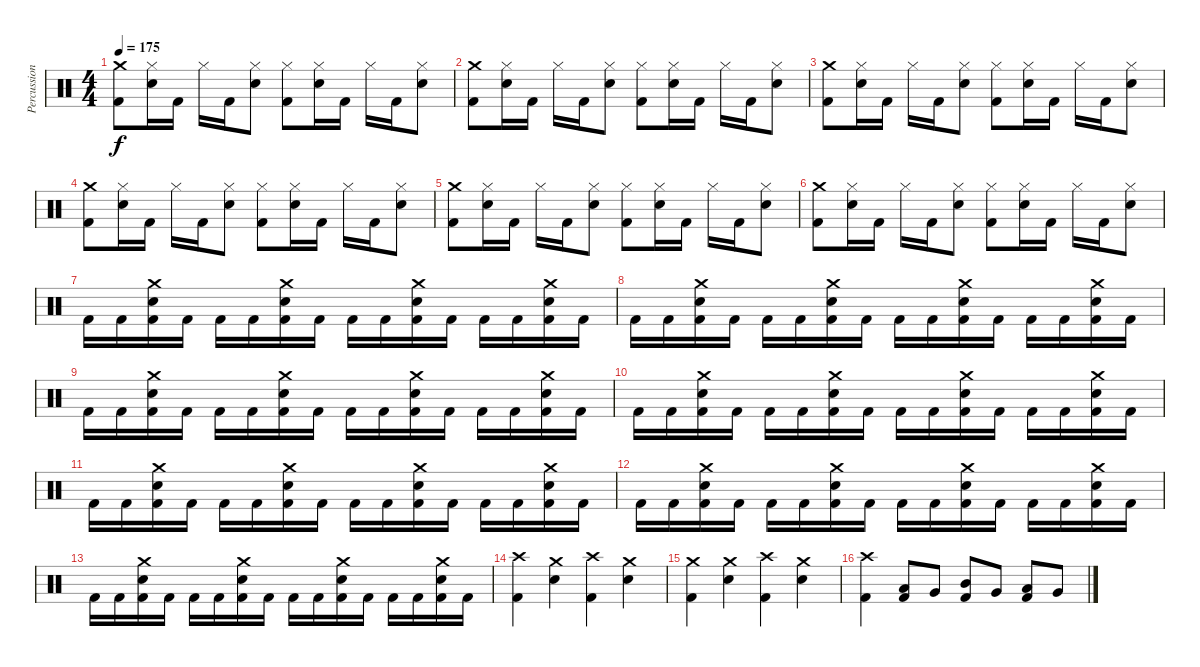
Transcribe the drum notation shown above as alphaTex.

\track ("Percussion" "Percussion") {instrument percussion}
\staff {score}
\articulation defaults
\ts (4 4)
\tempo 175
\clef neutral
\ks c
("Crash medium (hit)" "Kick (hit) 2").8{dy f} ("Hi-Hat (closed)" "Electric Snare (hit)").16 "Kick (hit) 2".16 "Hi-Hat (closed)".16 "Kick (hit) 2".16 ("Hi-Hat (closed)" "Electric Snare (hit)").8 ("Hi-Hat (closed)" "Kick (hit) 2").8 ("Hi-Hat (closed)" "Electric Snare (hit)").16 "Kick (hit) 2".16 "Hi-Hat (closed)".16 "Kick (hit) 2".16 ("Hi-Hat (closed)" "Electric Snare (hit)").8 |
("Crash medium (hit)" "Kick (hit) 2").8 ("Hi-Hat (closed)" "Electric Snare (hit)").16 "Kick (hit) 2".16 "Hi-Hat (closed)".16 "Kick (hit) 2".16 ("Hi-Hat (closed)" "Electric Snare (hit)").8 ("Hi-Hat (closed)" "Kick (hit) 2").8 ("Hi-Hat (closed)" "Electric Snare (hit)").16 "Kick (hit) 2".16 "Hi-Hat (closed)".16 "Kick (hit) 2".16 ("Hi-Hat (closed)" "Electric Snare (hit)").8 |
("Crash medium (hit)" "Kick (hit) 2").8 ("Hi-Hat (closed)" "Electric Snare (hit)").16 "Kick (hit) 2".16 "Hi-Hat (closed)".16 "Kick (hit) 2".16 ("Hi-Hat (closed)" "Electric Snare (hit)").8 ("Hi-Hat (closed)" "Kick (hit) 2").8 ("Hi-Hat (closed)" "Electric Snare (hit)").16 "Kick (hit) 2".16 "Hi-Hat (closed)".16 "Kick (hit) 2".16 ("Hi-Hat (closed)" "Electric Snare (hit)").8 |
("Crash medium (hit)" "Kick (hit) 2").8 ("Hi-Hat (closed)" "Electric Snare (hit)").16 "Kick (hit) 2".16 "Hi-Hat (closed)".16 "Kick (hit) 2".16 ("Hi-Hat (closed)" "Electric Snare (hit)").8 ("Hi-Hat (closed)" "Kick (hit) 2").8 ("Hi-Hat (closed)" "Electric Snare (hit)").16 "Kick (hit) 2".16 "Hi-Hat (closed)".16 "Kick (hit) 2".16 ("Hi-Hat (closed)" "Electric Snare (hit)").8 |
("Crash medium (hit)" "Kick (hit) 2").8 ("Hi-Hat (closed)" "Electric Snare (hit)").16 "Kick (hit) 2".16 "Hi-Hat (closed)".16 "Kick (hit) 2".16 ("Hi-Hat (closed)" "Electric Snare (hit)").8 ("Hi-Hat (closed)" "Kick (hit) 2").8 ("Hi-Hat (closed)" "Electric Snare (hit)").16 "Kick (hit) 2".16 "Hi-Hat (closed)".16 "Kick (hit) 2".16 ("Hi-Hat (closed)" "Electric Snare (hit)").8 |
("Crash medium (hit)" "Kick (hit) 2").8 ("Hi-Hat (closed)" "Electric Snare (hit)").16 "Kick (hit) 2".16 "Hi-Hat (closed)".16 "Kick (hit) 2".16 ("Hi-Hat (closed)" "Electric Snare (hit)").8 ("Hi-Hat (closed)" "Kick (hit) 2").8 ("Hi-Hat (closed)" "Electric Snare (hit)").16 "Kick (hit) 2".16 "Hi-Hat (closed)".16 "Kick (hit) 2".16 ("Hi-Hat (closed)" "Electric Snare (hit)").8 |
"Kick (hit) 2".16 "Kick (hit) 2".16 ("Crash medium (hit)" "Electric Snare (hit)" "Kick (hit) 2").16 "Kick (hit) 2".16 "Kick (hit) 2".16 "Kick (hit) 2".16 ("Crash medium (hit)" "Electric Snare (hit)" "Kick (hit) 2").16 "Kick (hit) 2".16 "Kick (hit) 2".16 "Kick (hit) 2".16 ("Crash medium (hit)" "Electric Snare (hit)" "Kick (hit) 2").16 "Kick (hit) 2".16 "Kick (hit) 2".16 "Kick (hit) 2".16 ("Crash medium (hit)" "Electric Snare (hit)" "Kick (hit) 2").16 "Kick (hit) 2".16 |
"Kick (hit) 2".16 "Kick (hit) 2".16 ("Crash medium (hit)" "Electric Snare (hit)" "Kick (hit) 2").16 "Kick (hit) 2".16 "Kick (hit) 2".16 "Kick (hit) 2".16 ("Crash medium (hit)" "Electric Snare (hit)" "Kick (hit) 2").16 "Kick (hit) 2".16 "Kick (hit) 2".16 "Kick (hit) 2".16 ("Crash medium (hit)" "Electric Snare (hit)" "Kick (hit) 2").16 "Kick (hit) 2".16 "Kick (hit) 2".16 "Kick (hit) 2".16 ("Crash medium (hit)" "Electric Snare (hit)" "Kick (hit) 2").16 "Kick (hit) 2".16 |
"Kick (hit) 2".16 "Kick (hit) 2".16 ("Crash medium (hit)" "Electric Snare (hit)" "Kick (hit) 2").16 "Kick (hit) 2".16 "Kick (hit) 2".16 "Kick (hit) 2".16 ("Crash medium (hit)" "Electric Snare (hit)" "Kick (hit) 2").16 "Kick (hit) 2".16 "Kick (hit) 2".16 "Kick (hit) 2".16 ("Crash medium (hit)" "Electric Snare (hit)" "Kick (hit) 2").16 "Kick (hit) 2".16 "Kick (hit) 2".16 "Kick (hit) 2".16 ("Crash medium (hit)" "Electric Snare (hit)" "Kick (hit) 2").16 "Kick (hit) 2".16 |
"Kick (hit) 2".16 "Kick (hit) 2".16 ("Crash medium (hit)" "Electric Snare (hit)" "Kick (hit) 2").16 "Kick (hit) 2".16 "Kick (hit) 2".16 "Kick (hit) 2".16 ("Crash medium (hit)" "Electric Snare (hit)" "Kick (hit) 2").16 "Kick (hit) 2".16 "Kick (hit) 2".16 "Kick (hit) 2".16 ("Crash medium (hit)" "Electric Snare (hit)" "Kick (hit) 2").16 "Kick (hit) 2".16 "Kick (hit) 2".16 "Kick (hit) 2".16 ("Crash medium (hit)" "Electric Snare (hit)" "Kick (hit) 2").16 "Kick (hit) 2".16 |
"Kick (hit) 2".16 "Kick (hit) 2".16 ("Crash medium (hit)" "Electric Snare (hit)" "Kick (hit) 2").16 "Kick (hit) 2".16 "Kick (hit) 2".16 "Kick (hit) 2".16 ("Crash medium (hit)" "Electric Snare (hit)" "Kick (hit) 2").16 "Kick (hit) 2".16 "Kick (hit) 2".16 "Kick (hit) 2".16 ("Crash medium (hit)" "Electric Snare (hit)" "Kick (hit) 2").16 "Kick (hit) 2".16 "Kick (hit) 2".16 "Kick (hit) 2".16 ("Crash medium (hit)" "Electric Snare (hit)" "Kick (hit) 2").16 "Kick (hit) 2".16 |
"Kick (hit) 2".16 "Kick (hit) 2".16 ("Crash medium (hit)" "Electric Snare (hit)" "Kick (hit) 2").16 "Kick (hit) 2".16 "Kick (hit) 2".16 "Kick (hit) 2".16 ("Crash medium (hit)" "Electric Snare (hit)" "Kick (hit) 2").16 "Kick (hit) 2".16 "Kick (hit) 2".16 "Kick (hit) 2".16 ("Crash medium (hit)" "Electric Snare (hit)" "Kick (hit) 2").16 "Kick (hit) 2".16 "Kick (hit) 2".16 "Kick (hit) 2".16 ("Crash medium (hit)" "Electric Snare (hit)" "Kick (hit) 2").16 "Kick (hit) 2".16 |
"Kick (hit) 2".16 "Kick (hit) 2".16 ("Crash medium (hit)" "Electric Snare (hit)" "Kick (hit) 2").16 "Kick (hit) 2".16 "Kick (hit) 2".16 "Kick (hit) 2".16 ("Crash medium (hit)" "Electric Snare (hit)" "Kick (hit) 2").16 "Kick (hit) 2".16 "Kick (hit) 2".16 "Kick (hit) 2".16 ("Crash medium (hit)" "Electric Snare (hit)" "Kick (hit) 2").16 "Kick (hit) 2".16 "Kick (hit) 2".16 "Kick (hit) 2".16 ("Crash medium (hit)" "Electric Snare (hit)" "Kick (hit) 2").16 "Kick (hit) 2".16 |
("Crash high (hit)" "Kick (hit) 2").4 ("Crash medium (hit)" "Electric Snare (hit)").4 ("Crash high (hit)" "Kick (hit) 2").4 ("Crash medium (hit)" "Electric Snare (hit)").4 |
("Crash medium (hit)" "Kick (hit) 2").4 ("Crash medium (hit)" "Electric Snare (hit)").4 ("Crash high (hit)" "Kick (hit) 2").4 ("Crash medium (hit)" "Electric Snare (hit)").4 |
("Crash high (hit)" "Kick (hit) 2").4 ("Low Tom (hit)" "Kick (hit) 2").8 "Very Low Tom (hit)".8 ("Mid Tom (hit)" "Kick (hit) 2").8 "Very Low Tom (hit)".8 ("Low Tom (hit)" "Kick (hit) 2").8 "Very Low Tom (hit)".8
